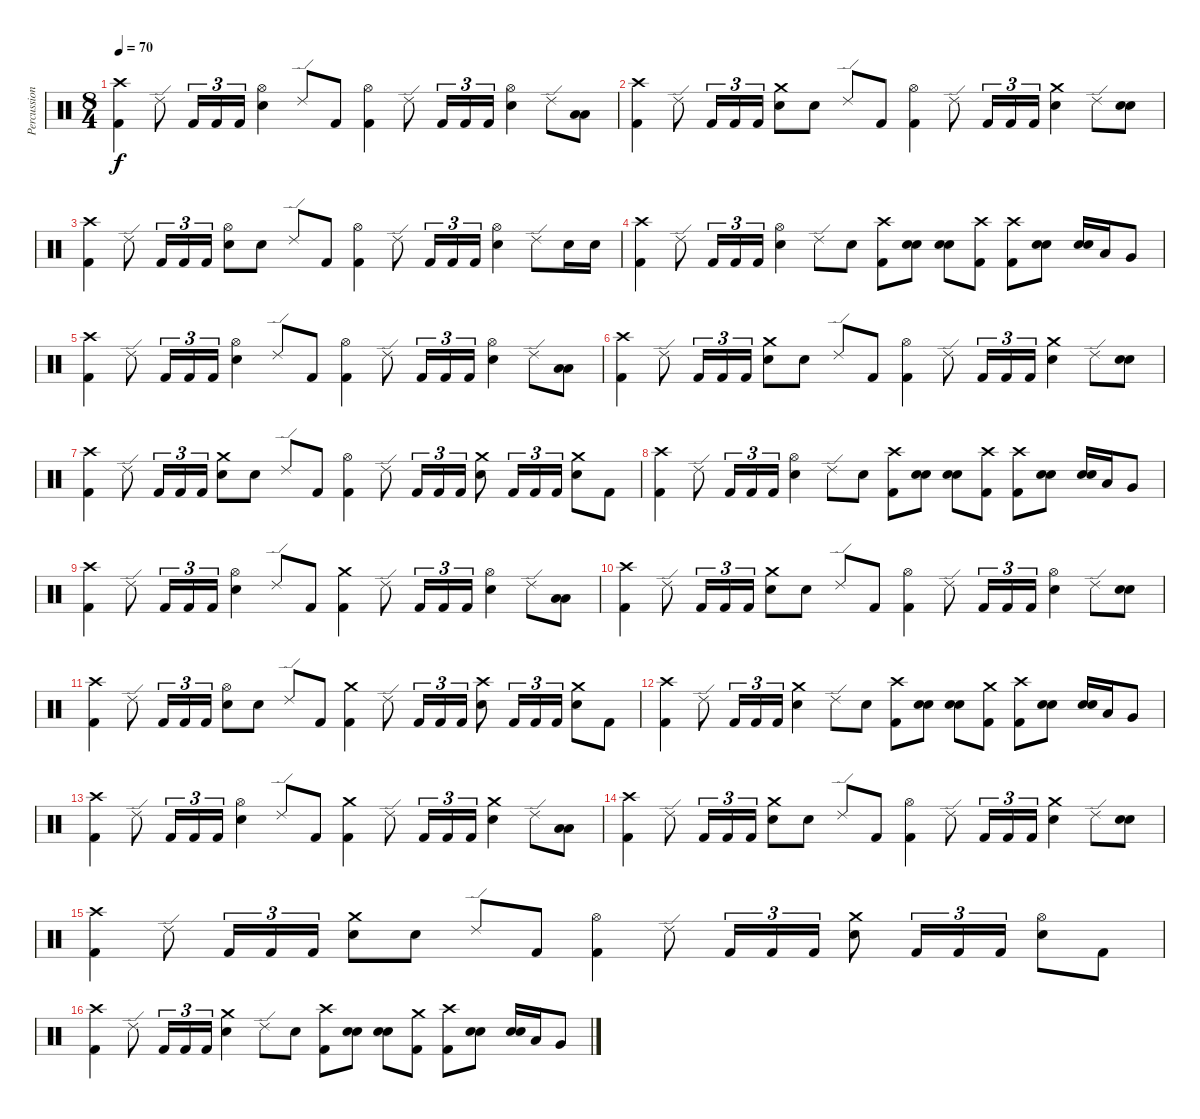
\track ("Percussion" "Percussion") {instrument percussion}
\staff {score}
\articulation defaults
\ts (8 4)
\tempo 70
\clef neutral
\ks c
("Crash high (hit)" "Kick (hit) 2").4{dy f} "Ride (edge) 2".8 "Kick (hit) 2".16{tu (3 2)} "Kick (hit) 2".16{tu (3 2)} "Kick (hit) 2".16{tu (3 2)} ("Hi-Hat (open)" "Electric Snare (hit)").4 "Ride (edge) 2".8 "Kick (hit) 2".8 ("Hi-Hat (open)" "Kick (hit) 2").4 "Ride (edge) 2".8 "Kick (hit) 2".16{tu (3 2)} "Kick (hit) 2".16{tu (3 2)} "Kick (hit) 2".16{tu (3 2)} ("Hi-Hat (open)" "Electric Snare (hit)").4 "Ride (edge) 2".8 ("Low Tom (hit)" "Low Tom (hit)").8{bu 60} |
("Crash high (hit)" "Kick (hit) 2").4 "Ride (edge) 2".8 "Kick (hit) 2".16{tu (3 2)} "Kick (hit) 2".16{tu (3 2)} "Kick (hit) 2".16{tu (3 2)} ("Crash medium (hit)" "Electric Snare (hit)").8 "Electric Snare (hit)".8 "Ride (edge) 2".8 "Kick (hit) 2".8 ("Hi-Hat (open)" "Kick (hit) 2").4 "Ride (edge) 2".8 "Kick (hit) 2".16{tu (3 2)} "Kick (hit) 2".16{tu (3 2)} "Kick (hit) 2".16{tu (3 2)} ("Crash medium (hit)" "Electric Snare (hit)").4 "Ride (edge) 2".8 ("Electric Snare (hit)" "Electric Snare (hit)").8{bu 60} |
("Crash high (hit)" "Kick (hit) 2").4 "Ride (edge) 2".8 "Kick (hit) 2".16{tu (3 2)} "Kick (hit) 2".16{tu (3 2)} "Kick (hit) 2".16{tu (3 2)} ("Hi-Hat (open)" "Electric Snare (hit)").8 "Electric Snare (hit)".8 "Ride (edge) 2".8 "Kick (hit) 2".8 ("Hi-Hat (open)" "Kick (hit) 2").4 "Ride (edge) 2".8 "Kick (hit) 2".16{tu (3 2)} "Kick (hit) 2".16{tu (3 2)} "Kick (hit) 2".16{tu (3 2)} ("Hi-Hat (open)" "Electric Snare (hit)").4 "Ride (edge) 2".8 "Electric Snare (hit)".16 "Electric Snare (hit)".16 |
("Crash high (hit)" "Kick (hit) 2").4 "Ride (edge) 2".8 "Kick (hit) 2".16{tu (3 2)} "Kick (hit) 2".16{tu (3 2)} "Kick (hit) 2".16{tu (3 2)} ("Hi-Hat (open)" "Electric Snare (hit)").4 "Ride (edge) 2".8 "Electric Snare (hit)".8 ("Crash high (hit)" "Kick (hit) 2").8 ("Electric Snare (hit)" "Electric Snare (hit)").8{bu 60} ("Electric Snare (hit)" "Electric Snare (hit)").8{bu 60} ("Crash high (hit)" "Kick (hit) 2").8 ("Crash high (hit)" "Kick (hit) 2").8 ("Electric Snare (hit)" "Electric Snare (hit)").8{bu 60} ("Electric Snare (hit)" "Electric Snare (hit)").16{bu 60} "Low Tom (hit)".16 "Very Low Tom (hit)".8 |
("Crash high (hit)" "Kick (hit) 2").4 "Ride (edge) 2".8 "Kick (hit) 2".16{tu (3 2)} "Kick (hit) 2".16{tu (3 2)} "Kick (hit) 2".16{tu (3 2)} ("Hi-Hat (open)" "Electric Snare (hit)").4 "Ride (edge) 2".8 "Kick (hit) 2".8 ("Hi-Hat (open)" "Kick (hit) 2").4 "Ride (edge) 2".8 "Kick (hit) 2".16{tu (3 2)} "Kick (hit) 2".16{tu (3 2)} "Kick (hit) 2".16{tu (3 2)} ("Hi-Hat (open)" "Electric Snare (hit)").4 "Ride (edge) 2".8 ("Low Tom (hit)" "Low Tom (hit)").8{bu 60} |
("Crash high (hit)" "Kick (hit) 2").4 "Ride (edge) 2".8 "Kick (hit) 2".16{tu (3 2)} "Kick (hit) 2".16{tu (3 2)} "Kick (hit) 2".16{tu (3 2)} ("Crash medium (hit)" "Electric Snare (hit)").8 "Electric Snare (hit)".8 "Ride (edge) 2".8 "Kick (hit) 2".8 ("Hi-Hat (open)" "Kick (hit) 2").4 "Ride (edge) 2".8 "Kick (hit) 2".16{tu (3 2)} "Kick (hit) 2".16{tu (3 2)} "Kick (hit) 2".16{tu (3 2)} ("Crash medium (hit)" "Electric Snare (hit)").4 "Ride (edge) 2".8 ("Electric Snare (hit)" "Electric Snare (hit)").8{bu 60} |
("Crash high (hit)" "Kick (hit) 2").4 "Ride (edge) 2".8 "Kick (hit) 2".16{tu (3 2)} "Kick (hit) 2".16{tu (3 2)} "Kick (hit) 2".16{tu (3 2)} ("Crash medium (hit)" "Electric Snare (hit)").8 "Electric Snare (hit)".8 "Ride (edge) 2".8 "Kick (hit) 2".8 ("Hi-Hat (open)" "Kick (hit) 2").4 "Ride (edge) 2".8 "Kick (hit) 2".16{tu (3 2)} "Kick (hit) 2".16{tu (3 2)} "Kick (hit) 2".16{tu (3 2)} ("Crash medium (hit)" "Electric Snare (hit)").8 "Kick (hit) 2".16{tu (3 2)} "Kick (hit) 2".16{tu (3 2)} "Kick (hit) 2".16{tu (3 2)} ("Crash medium (hit)" "Electric Snare (hit)").8 "Kick (hit) 2".8 |
("Crash high (hit)" "Kick (hit) 2").4 "Ride (edge) 2".8 "Kick (hit) 2".16{tu (3 2)} "Kick (hit) 2".16{tu (3 2)} "Kick (hit) 2".16{tu (3 2)} ("Hi-Hat (open)" "Electric Snare (hit)").4 "Ride (edge) 2".8 "Electric Snare (hit)".8 ("Crash high (hit)" "Kick (hit) 2").8 ("Electric Snare (hit)" "Electric Snare (hit)").8{bu 60} ("Electric Snare (hit)" "Electric Snare (hit)").8{bu 60} ("Crash high (hit)" "Kick (hit) 2").8 ("Crash high (hit)" "Kick (hit) 2").8 ("Electric Snare (hit)" "Electric Snare (hit)").8{bu 60} ("Electric Snare (hit)" "Electric Snare (hit)").16{bu 60} "Low Tom (hit)".16 "Very Low Tom (hit)".8 |
("Crash high (hit)" "Kick (hit) 2").4 "Ride (edge) 2".8 "Kick (hit) 2".16{tu (3 2)} "Kick (hit) 2".16{tu (3 2)} "Kick (hit) 2".16{tu (3 2)} ("Hi-Hat (open)" "Electric Snare (hit)").4 "Ride (edge) 2".8 "Kick (hit) 2".8 ("Crash medium (hit)" "Kick (hit) 2").4 "Ride (edge) 2".8 "Kick (hit) 2".16{tu (3 2)} "Kick (hit) 2".16{tu (3 2)} "Kick (hit) 2".16{tu (3 2)} ("Hi-Hat (open)" "Electric Snare (hit)").4 "Ride (edge) 2".8 ("Low Tom (hit)" "Low Tom (hit)").8{bu 60} |
("Crash high (hit)" "Kick (hit) 2").4 "Ride (edge) 2".8 "Kick (hit) 2".16{tu (3 2)} "Kick (hit) 2".16{tu (3 2)} "Kick (hit) 2".16{tu (3 2)} ("Crash medium (hit)" "Electric Snare (hit)").8 "Electric Snare (hit)".8 "Ride (edge) 2".8 "Kick (hit) 2".8 ("Hi-Hat (open)" "Kick (hit) 2").4 "Ride (edge) 2".8 "Kick (hit) 2".16{tu (3 2)} "Kick (hit) 2".16{tu (3 2)} "Kick (hit) 2".16{tu (3 2)} ("Hi-Hat (open)" "Electric Snare (hit)").4 "Ride (edge) 2".8 ("Electric Snare (hit)" "Electric Snare (hit)").8{bu 60} |
("Crash high (hit)" "Kick (hit) 2").4 "Ride (edge) 2".8 "Kick (hit) 2".16{tu (3 2)} "Kick (hit) 2".16{tu (3 2)} "Kick (hit) 2".16{tu (3 2)} ("Hi-Hat (open)" "Electric Snare (hit)").8 "Electric Snare (hit)".8 "Ride (edge) 2".8 "Kick (hit) 2".8 ("Crash medium (hit)" "Kick (hit) 2").4 "Ride (edge) 2".8 "Kick (hit) 2".16{tu (3 2)} "Kick (hit) 2".16{tu (3 2)} "Kick (hit) 2".16{tu (3 2)} ("Crash high (hit)" "Electric Snare (hit)").8 "Kick (hit) 2".16{tu (3 2)} "Kick (hit) 2".16{tu (3 2)} "Kick (hit) 2".16{tu (3 2)} ("Crash medium (hit)" "Electric Snare (hit)").8 "Kick (hit) 2".8 |
("Crash high (hit)" "Kick (hit) 2").4 "Ride (edge) 2".8 "Kick (hit) 2".16{tu (3 2)} "Kick (hit) 2".16{tu (3 2)} "Kick (hit) 2".16{tu (3 2)} ("Crash medium (hit)" "Electric Snare (hit)").4 "Ride (edge) 2".8 "Electric Snare (hit)".8 ("Crash high (hit)" "Kick (hit) 2").8 ("Electric Snare (hit)" "Electric Snare (hit)").8{bu 60} ("Electric Snare (hit)" "Electric Snare (hit)").8{bu 60} ("Crash medium (hit)" "Kick (hit) 2").8 ("Crash high (hit)" "Kick (hit) 2").8 ("Electric Snare (hit)" "Electric Snare (hit)").8{bu 60} ("Electric Snare (hit)" "Electric Snare (hit)").16{bu 60} "Low Tom (hit)".16 "Very Low Tom (hit)".8 |
("Crash high (hit)" "Kick (hit) 2").4 "Ride (edge) 2".8 "Kick (hit) 2".16{tu (3 2)} "Kick (hit) 2".16{tu (3 2)} "Kick (hit) 2".16{tu (3 2)} ("Hi-Hat (open)" "Electric Snare (hit)").4 "Ride (edge) 2".8 "Kick (hit) 2".8 ("Crash medium (hit)" "Kick (hit) 2").4 "Ride (edge) 2".8 "Kick (hit) 2".16{tu (3 2)} "Kick (hit) 2".16{tu (3 2)} "Kick (hit) 2".16{tu (3 2)} ("Crash medium (hit)" "Electric Snare (hit)").4 "Ride (edge) 2".8 ("Low Tom (hit)" "Low Tom (hit)").8{bu 60} |
("Crash high (hit)" "Kick (hit) 2").4 "Ride (edge) 2".8 "Kick (hit) 2".16{tu (3 2)} "Kick (hit) 2".16{tu (3 2)} "Kick (hit) 2".16{tu (3 2)} ("Crash medium (hit)" "Electric Snare (hit)").8 "Electric Snare (hit)".8 "Ride (edge) 2".8 "Kick (hit) 2".8 ("Hi-Hat (open)" "Kick (hit) 2").4 "Ride (edge) 2".8 "Kick (hit) 2".16{tu (3 2)} "Kick (hit) 2".16{tu (3 2)} "Kick (hit) 2".16{tu (3 2)} ("Crash medium (hit)" "Electric Snare (hit)").4 "Ride (edge) 2".8 ("Electric Snare (hit)" "Electric Snare (hit)").8{bu 60} |
("Crash high (hit)" "Kick (hit) 2").4 "Ride (edge) 2".8 "Kick (hit) 2".16{tu (3 2)} "Kick (hit) 2".16{tu (3 2)} "Kick (hit) 2".16{tu (3 2)} ("Crash medium (hit)" "Electric Snare (hit)").8 "Electric Snare (hit)".8 "Ride (edge) 2".8 "Kick (hit) 2".8 ("Hi-Hat (open)" "Kick (hit) 2").4 "Ride (edge) 2".8 "Kick (hit) 2".16{tu (3 2)} "Kick (hit) 2".16{tu (3 2)} "Kick (hit) 2".16{tu (3 2)} ("Crash medium (hit)" "Electric Snare (hit)").8 "Kick (hit) 2".16{tu (3 2)} "Kick (hit) 2".16{tu (3 2)} "Kick (hit) 2".16{tu (3 2)} ("Hi-Hat (open)" "Electric Snare (hit)").8 "Kick (hit) 2".8 |
("Crash high (hit)" "Kick (hit) 2").4 "Ride (edge) 2".8 "Kick (hit) 2".16{tu (3 2)} "Kick (hit) 2".16{tu (3 2)} "Kick (hit) 2".16{tu (3 2)} ("Crash medium (hit)" "Electric Snare (hit)").4 "Ride (edge) 2".8 "Electric Snare (hit)".8 ("Crash high (hit)" "Kick (hit) 2").8 ("Electric Snare (hit)" "Electric Snare (hit)").8{bu 60} ("Electric Snare (hit)" "Electric Snare (hit)").8{bu 60} ("Crash medium (hit)" "Kick (hit) 2").8 ("Crash high (hit)" "Kick (hit) 2").8 ("Electric Snare (hit)" "Electric Snare (hit)").8{bu 60} ("Electric Snare (hit)" "Electric Snare (hit)").16{bu 60} "Low Tom (hit)".16 "Very Low Tom (hit)".8
